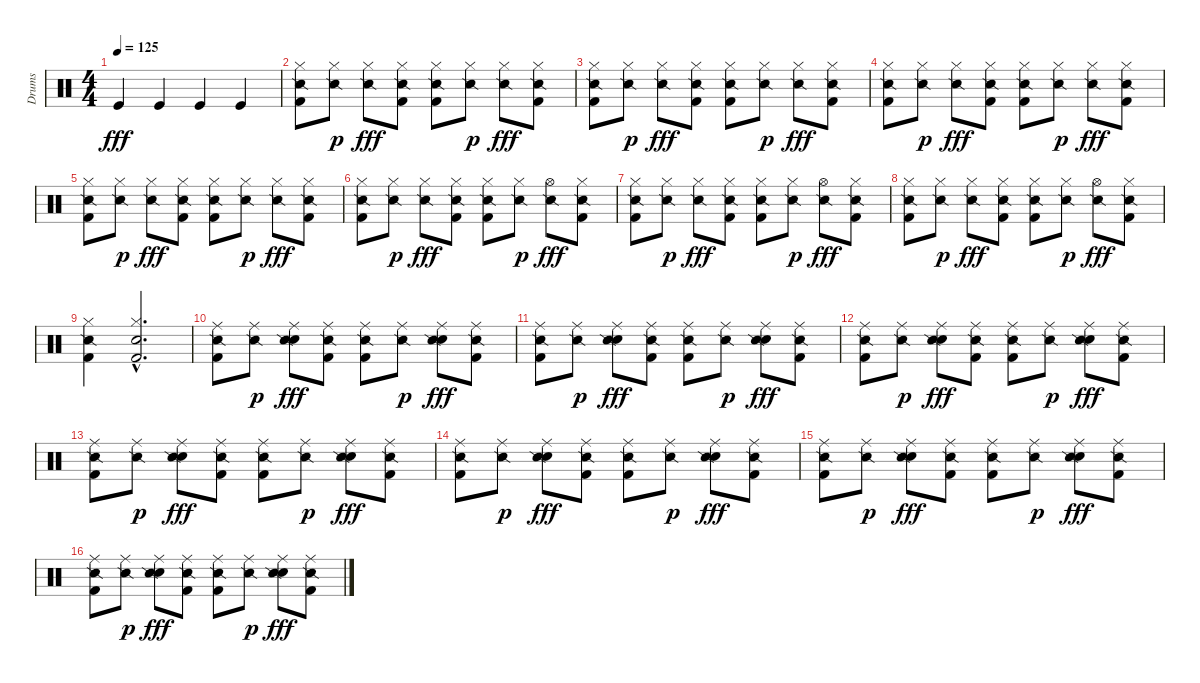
\track ("Drums" "Drums") {instrument percussion}
\staff {score}
\articulation defaults
\ts (4 4)
\tempo 125
\clef neutral
\ks c "Kick (hit)".4{dy fff} "Kick (hit)".4 "Kick (hit)".4 "Kick (hit)".4
|
("Kick (hit) 2" "Snare (side stick) 2" "Hi-Hat (closed)").8 ("Snare (side stick) 2" "Hi-Hat (closed)").8{dy p} ("Snare (side stick) 2" "Hi-Hat (closed)").8{dy fff} ("Kick (hit) 2" "Snare (side stick) 2" "Hi-Hat (closed)").8 ("Kick (hit) 2" "Snare (side stick) 2" "Hi-Hat (closed)").8 ("Snare (side stick) 2" "Hi-Hat (closed)").8{dy p} ("Snare (side stick) 2" "Hi-Hat (closed)").8{dy fff} ("Kick (hit) 2" "Snare (side stick) 2" "Hi-Hat (closed)").8 |
("Kick (hit) 2" "Snare (side stick) 2" "Hi-Hat (closed)").8 ("Snare (side stick) 2" "Hi-Hat (closed)").8{dy p} ("Snare (side stick) 2" "Hi-Hat (closed)").8{dy fff} ("Kick (hit) 2" "Snare (side stick) 2" "Hi-Hat (closed)").8 ("Kick (hit) 2" "Snare (side stick) 2" "Hi-Hat (closed)").8 ("Snare (side stick) 2" "Hi-Hat (closed)").8{dy p} ("Snare (side stick) 2" "Hi-Hat (closed)").8{dy fff} ("Kick (hit) 2" "Snare (side stick) 2" "Hi-Hat (closed)").8 |
("Kick (hit) 2" "Snare (side stick) 2" "Hi-Hat (closed)").8 ("Snare (side stick) 2" "Hi-Hat (closed)").8{dy p} ("Snare (side stick) 2" "Hi-Hat (closed)").8{dy fff} ("Kick (hit) 2" "Snare (side stick) 2" "Hi-Hat (closed)").8 ("Kick (hit) 2" "Snare (side stick) 2" "Hi-Hat (closed)").8 ("Snare (side stick) 2" "Hi-Hat (closed)").8{dy p} ("Snare (side stick) 2" "Hi-Hat (closed)").8{dy fff} ("Kick (hit) 2" "Snare (side stick) 2" "Hi-Hat (closed)").8 |
("Kick (hit) 2" "Snare (side stick) 2" "Hi-Hat (closed)").8 ("Snare (side stick) 2" "Hi-Hat (closed)").8{dy p} ("Snare (side stick) 2" "Hi-Hat (closed)").8{dy fff} ("Kick (hit) 2" "Snare (side stick) 2" "Hi-Hat (closed)").8 ("Kick (hit) 2" "Snare (side stick) 2" "Hi-Hat (closed)").8 ("Snare (side stick) 2" "Hi-Hat (closed)").8{dy p} ("Snare (side stick) 2" "Hi-Hat (closed)").8{dy fff} ("Kick (hit) 2" "Snare (side stick) 2" "Hi-Hat (closed)").8 |
("Kick (hit) 2" "Snare (side stick) 2" "Hi-Hat (closed)").8 ("Snare (side stick) 2" "Hi-Hat (closed)").8{dy p} ("Snare (side stick) 2" "Hi-Hat (closed)").8{dy fff} ("Kick (hit) 2" "Snare (side stick) 2" "Hi-Hat (closed)").8 ("Kick (hit) 2" "Snare (side stick) 2" "Hi-Hat (closed)").8 ("Snare (side stick) 2" "Hi-Hat (closed)").8{dy p} ("Snare (side stick) 2" "Hi-Hat (open)").8{dy fff} ("Kick (hit) 2" "Snare (side stick) 2" "Hi-Hat (closed)").8 |
("Kick (hit) 2" "Snare (side stick) 2" "Hi-Hat (closed)").8 ("Snare (side stick) 2" "Hi-Hat (closed)").8{dy p} ("Snare (side stick) 2" "Hi-Hat (closed)").8{dy fff} ("Kick (hit) 2" "Snare (side stick) 2" "Hi-Hat (closed)").8 ("Kick (hit) 2" "Snare (side stick) 2" "Hi-Hat (closed)").8 ("Snare (side stick) 2" "Hi-Hat (closed)").8{dy p} ("Snare (side stick) 2" "Hi-Hat (open)").8{dy fff} ("Kick (hit) 2" "Snare (side stick) 2" "Hi-Hat (closed)").8 |
("Kick (hit) 2" "Snare (side stick) 2" "Hi-Hat (closed)").8 ("Snare (side stick) 2" "Hi-Hat (closed)").8{dy p} ("Snare (side stick) 2" "Hi-Hat (closed)").8{dy fff} ("Kick (hit) 2" "Snare (side stick) 2" "Hi-Hat (closed)").8 ("Kick (hit) 2" "Snare (side stick) 2" "Hi-Hat (closed)").8 ("Snare (side stick) 2" "Hi-Hat (closed)").8{dy p} ("Snare (side stick) 2" "Hi-Hat (open)").8{dy fff} ("Kick (hit) 2" "Snare (side stick) 2" "Hi-Hat (closed)").8 |
("Kick (hit) 2" "Snare (side stick) 2" "Hi-Hat (closed)").4 ("Kick (hit) 2"{hac} "Electric Snare (hit)"{hac} "Hi-Hat (closed)"{hac}).2{d} |
("Kick (hit) 2" "Snare (side stick) 2" "Ride (middle)").8 ("Snare (side stick) 2" "Ride (middle)").8{dy p} ("Electric Snare (hit)" "Snare (side stick) 2" "Ride (middle)").8{dy fff} ("Kick (hit) 2" "Snare (side stick) 2" "Ride (middle)").8 ("Kick (hit) 2" "Snare (side stick) 2" "Ride (middle)").8 ("Snare (side stick) 2" "Ride (middle)").8{dy p} ("Electric Snare (hit)" "Snare (side stick) 2" "Ride (middle)").8{dy fff} ("Kick (hit) 2" "Snare (side stick) 2" "Ride (middle)").8 |
("Kick (hit) 2" "Snare (side stick) 2" "Ride (middle)").8 ("Snare (side stick) 2" "Ride (middle)").8{dy p} ("Electric Snare (hit)" "Snare (side stick) 2" "Ride (middle)").8{dy fff} ("Kick (hit) 2" "Snare (side stick) 2" "Ride (middle)").8 ("Kick (hit) 2" "Snare (side stick) 2" "Ride (middle)").8 ("Snare (side stick) 2" "Ride (middle)").8{dy p} ("Electric Snare (hit)" "Snare (side stick) 2" "Ride (middle)").8{dy fff} ("Kick (hit) 2" "Snare (side stick) 2" "Ride (middle)").8 |
("Kick (hit) 2" "Snare (side stick) 2" "Ride (middle)").8 ("Snare (side stick) 2" "Ride (middle)").8{dy p} ("Electric Snare (hit)" "Snare (side stick) 2" "Ride (middle)").8{dy fff} ("Kick (hit) 2" "Snare (side stick) 2" "Ride (middle)").8 ("Kick (hit) 2" "Snare (side stick) 2" "Ride (middle)").8 ("Snare (side stick) 2" "Ride (middle)").8{dy p} ("Electric Snare (hit)" "Snare (side stick) 2" "Ride (middle)").8{dy fff} ("Kick (hit) 2" "Snare (side stick) 2" "Ride (middle)").8 |
("Kick (hit) 2" "Snare (side stick) 2" "Ride (middle)").8 ("Snare (side stick) 2" "Ride (middle)").8{dy p} ("Electric Snare (hit)" "Snare (side stick) 2" "Ride (middle)").8{dy fff} ("Kick (hit) 2" "Snare (side stick) 2" "Ride (middle)").8 ("Kick (hit) 2" "Snare (side stick) 2" "Ride (middle)").8 ("Snare (side stick) 2" "Ride (middle)").8{dy p} ("Electric Snare (hit)" "Snare (side stick) 2" "Ride (middle)").8{dy fff} ("Kick (hit) 2" "Snare (side stick) 2" "Ride (middle)").8 |
("Kick (hit) 2" "Snare (side stick) 2" "Ride (middle)").8 ("Snare (side stick) 2" "Ride (middle)").8{dy p} ("Electric Snare (hit)" "Snare (side stick) 2" "Ride (middle)").8{dy fff} ("Kick (hit) 2" "Snare (side stick) 2" "Ride (middle)").8 ("Kick (hit) 2" "Snare (side stick) 2" "Ride (middle)").8 ("Snare (side stick) 2" "Ride (middle)").8{dy p} ("Electric Snare (hit)" "Snare (side stick) 2" "Ride (middle)").8{dy fff} ("Kick (hit) 2" "Snare (side stick) 2" "Ride (middle)").8 |
("Kick (hit) 2" "Snare (side stick) 2" "Ride (middle)").8 ("Snare (side stick) 2" "Ride (middle)").8{dy p} ("Electric Snare (hit)" "Snare (side stick) 2" "Ride (middle)").8{dy fff} ("Kick (hit) 2" "Snare (side stick) 2" "Ride (middle)").8 ("Kick (hit) 2" "Snare (side stick) 2" "Ride (middle)").8 ("Snare (side stick) 2" "Ride (middle)").8{dy p} ("Electric Snare (hit)" "Snare (side stick) 2" "Ride (middle)").8{dy fff} ("Kick (hit) 2" "Snare (side stick) 2" "Ride (middle)").8 |
("Kick (hit) 2" "Snare (side stick) 2" "Ride (middle)").8 ("Snare (side stick) 2" "Ride (middle)").8{dy p} ("Electric Snare (hit)" "Snare (side stick) 2" "Ride (middle)").8{dy fff} ("Kick (hit) 2" "Snare (side stick) 2" "Ride (middle)").8 ("Kick (hit) 2" "Snare (side stick) 2" "Ride (middle)").8 ("Snare (side stick) 2" "Ride (middle)").8{dy p} ("Electric Snare (hit)" "Snare (side stick) 2" "Ride (middle)").8{dy fff} ("Kick (hit) 2" "Snare (side stick) 2" "Ride (middle)").8
